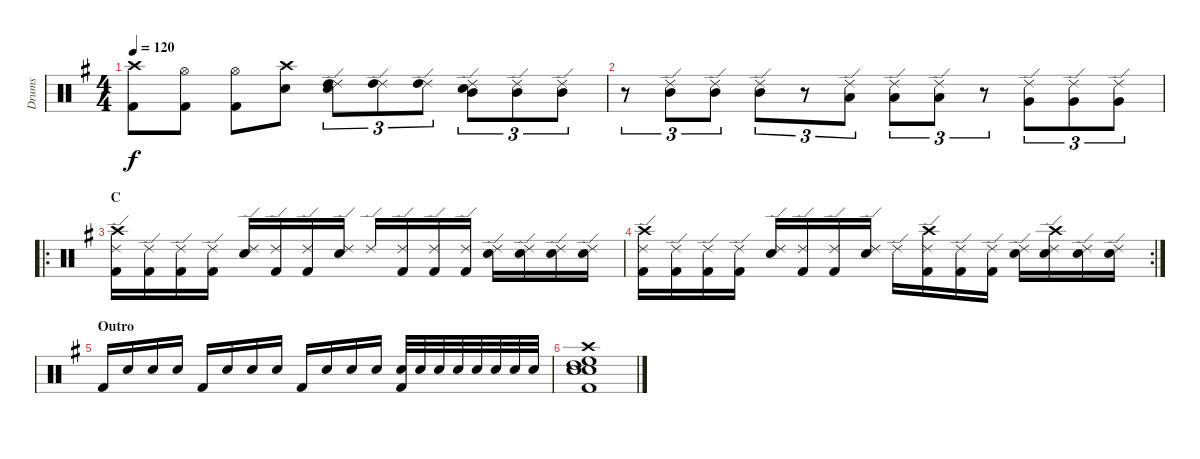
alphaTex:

\track ("Drums" "Drums") {instrument percussion}
\staff {score}
\articulation defaults
\ts (4 4)
\tempo 120
\clef neutral
\ks eminor
("Crash high (hit)" "Kick (hit) 2").8{dy f} ("Hi-Hat (open)" "Kick (hit) 2").8 ("Hi-Hat (open)" "Kick (hit) 2").8 ("Crash high (hit)" "Electric Snare (hit)").8 ("Ride (edge) 2" "Electric Snare (hit)" "High Tom (hit)").8{tu (3 2)} ("Ride (edge) 2" "High Tom (hit)").8{tu (3 2)} ("Ride (edge) 2" "High Tom (hit)").8{tu (3 2)} ("Ride (edge) 2" "Electric Snare (hit)" "Mid Tom (hit)").8{tu (3 2)} ("Ride (edge) 2" "Mid Tom (hit)").8{tu (3 2)} ("Ride (edge) 2" "Mid Tom (hit)").8{tu (3 2)} |
r.8{tu (3 2)} ("Ride (edge) 2" "Mid Tom (hit)").8{tu (3 2)} ("Ride (edge) 2" "Mid Tom (hit)").8{tu (3 2)} ("Ride (edge) 2" "Mid Tom (hit)").8{tu (3 2)} r.8{tu (3 2)} ("Ride (edge) 2" "Low Tom (hit)").8{tu (3 2)} ("Ride (edge) 2" "Low Tom (hit)").8{tu (3 2)} ("Ride (edge) 2" "Low Tom (hit)").8{tu (3 2)} r.8{tu (3 2)} ("Ride (edge) 2" "Very Low Tom (hit)").8{tu (3 2)} ("Ride (edge) 2" "Very Low Tom (hit)").8{tu (3 2)} ("Ride (edge) 2" "Very Low Tom (hit)").8{tu (3 2)} |
\ro
\section ("" "C")
("Crash high (hit)" "Ride (edge) 2" "Kick (hit) 2").16 ("Ride (edge) 2" "Kick (hit) 2").16 ("Ride (edge) 2" "Kick (hit) 2").16 ("Ride (edge) 2" "Kick (hit) 2").16 ("Ride (edge) 2" "Electric Snare (hit)").16 ("Ride (edge) 2" "Kick (hit) 2").16 ("Ride (edge) 2" "Kick (hit) 2").16 ("Ride (edge) 2" "Electric Snare (hit)").16 "Ride (edge) 2".16 ("Ride (edge) 2" "Kick (hit) 2").16 ("Ride (edge) 2" "Kick (hit) 2").16 ("Ride (edge) 2" "Kick (hit) 2").16 ("Ride (edge) 2" "Electric Snare (hit)").16 ("Ride (edge) 2" "Electric Snare (hit)").16 ("Ride (edge) 2" "Electric Snare (hit)").16 ("Ride (edge) 2" "Electric Snare (hit)").16 |
\rc 2
("Crash high (hit)" "Ride (edge) 2" "Kick (hit) 2").16 ("Ride (edge) 2" "Kick (hit) 2").16 ("Ride (edge) 2" "Kick (hit) 2").16 ("Ride (edge) 2" "Kick (hit) 2").16 ("Ride (edge) 2" "Electric Snare (hit)").16 ("Ride (edge) 2" "Kick (hit) 2").16 ("Ride (edge) 2" "Kick (hit) 2").16 ("Ride (edge) 2" "Electric Snare (hit)").16 "Ride (edge) 2".16 ("Crash high (hit)" "Ride (edge) 2" "Kick (hit) 2").16 ("Ride (edge) 2" "Kick (hit) 2").16 ("Ride (edge) 2" "Kick (hit) 2").16 ("Ride (edge) 2" "Electric Snare (hit)").16 ("Crash high (hit)" "Ride (edge) 2" "Electric Snare (hit)").16 ("Ride (edge) 2" "Electric Snare (hit)").16 ("Ride (edge) 2" "Electric Snare (hit)").16 |
\section ("" "Outro")
"Kick (hit) 2".16 "Electric Snare (hit)".16 "Electric Snare (hit)".16 "Electric Snare (hit)".16 "Kick (hit) 2".16 "Electric Snare (hit)".16 "Electric Snare (hit)".16 "Electric Snare (hit)".16 "Kick (hit) 2".16 "Electric Snare (hit)".16 "Electric Snare (hit)".16 "Electric Snare (hit)".16 ("Electric Snare (hit)" "Kick (hit) 2").32 "Electric Snare (hit)".32 "Electric Snare (hit)".32 "Electric Snare (hit)".32 "Electric Snare (hit)".32 "Electric Snare (hit)".32 "Electric Snare (hit)".32 "Electric Snare (hit)".32 |
("Crash high (hit)" "Snare (hit) 2" "Electric Snare (hit)" "High Floor Tom (hit)" "High Tom (hit)" "Kick (hit) 2").1
